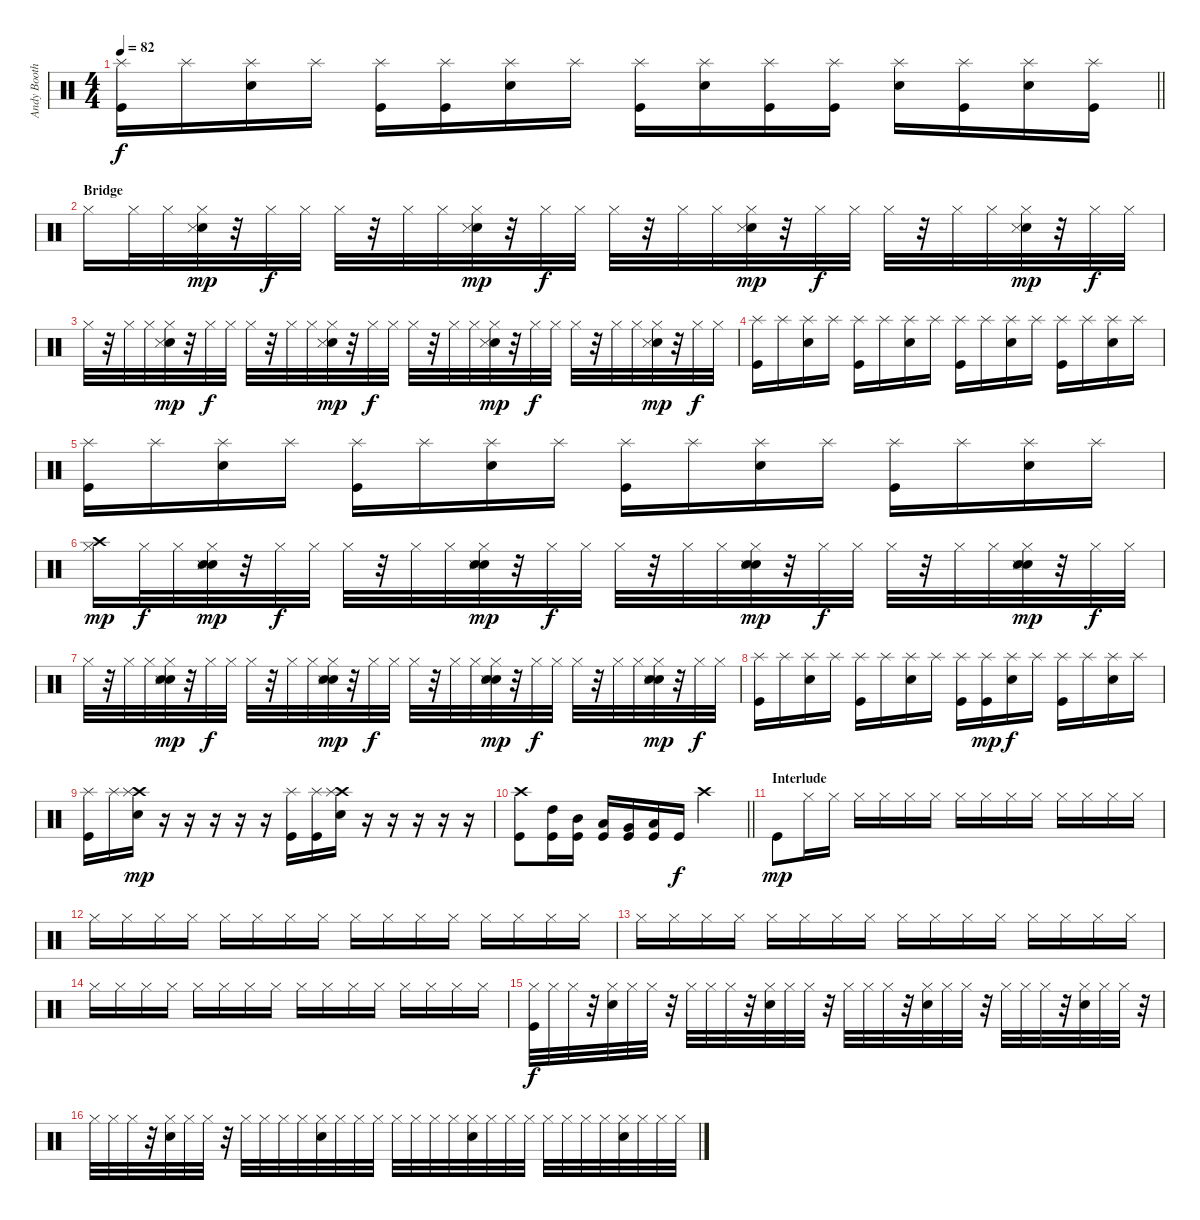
\track ("Andy Booth" "Andy Booth") {instrument percussion}
\staff {score}
\articulation defaults
\ts (4 4)
\tempo 82
\clef neutral
\barLineRight lightlight
\ks c
("Splash (hit)" "Kick (hit)").16{dy f} "Splash (hit)".16 ("Splash (hit)" "Electric Snare (hit)").16 "Splash (hit)".16 ("Splash (hit)" "Kick (hit)").16 ("Splash (hit)" "Kick (hit)").16 ("Splash (hit)" "Electric Snare (hit)").16 "Splash (hit)".16 ("Splash (hit)" "Kick (hit)").16 ("Splash (hit)" "Electric Snare (hit)").16 ("Splash (hit)" "Kick (hit)").16 ("Splash (hit)" "Kick (hit)").16 ("Splash (hit)" "Electric Snare (hit)").16 ("Splash (hit)" "Kick (hit)").16 ("Splash (hit)" "Electric Snare (hit)").16 ("Splash (hit)" "Kick (hit)").16 |
\section ("" "Bridge")
"Hi-Hat (closed)".16 "Hi-Hat (closed)".32 "Hi-Hat (closed)".32 ("Hi-Hat (closed)" "Snare (hit) 2" "Snare (side stick) 3").32{dy mp} r.32 "Hi-Hat (closed)".32{dy f} "Hi-Hat (closed)".32 "Hi-Hat (closed)".32 r.32 "Hi-Hat (closed)".32 "Hi-Hat (closed)".32 ("Hi-Hat (closed)" "Snare (hit) 2" "Snare (side stick) 3").32{dy mp} r.32 "Hi-Hat (closed)".32{dy f} "Hi-Hat (closed)".32 "Hi-Hat (closed)".32 r.32 "Hi-Hat (closed)".32 "Hi-Hat (closed)".32 ("Hi-Hat (closed)" "Snare (hit) 2" "Snare (side stick) 3").32{dy mp} r.32 "Hi-Hat (closed)".32{dy f} "Hi-Hat (closed)".32 "Hi-Hat (closed)".32 r.32 "Hi-Hat (closed)".32 "Hi-Hat (closed)".32 ("Hi-Hat (closed)" "Snare (hit) 2" "Snare (side stick) 3").32{dy mp} r.32 "Hi-Hat (closed)".32{dy f} "Hi-Hat (closed)".32 |
"Hi-Hat (closed)".32 r.32 "Hi-Hat (closed)".32 "Hi-Hat (closed)".32 ("Hi-Hat (closed)" "Snare (hit) 2" "Snare (side stick) 3").32{dy mp} r.32 "Hi-Hat (closed)".32{dy f} "Hi-Hat (closed)".32 "Hi-Hat (closed)".32 r.32 "Hi-Hat (closed)".32 "Hi-Hat (closed)".32 ("Hi-Hat (closed)" "Snare (hit) 2" "Snare (side stick) 3").32{dy mp} r.32 "Hi-Hat (closed)".32{dy f} "Hi-Hat (closed)".32 "Hi-Hat (closed)".32 r.32 "Hi-Hat (closed)".32 "Hi-Hat (closed)".32 ("Hi-Hat (closed)" "Snare (hit) 2" "Snare (side stick) 3").32{dy mp} r.32 "Hi-Hat (closed)".32{dy f} "Hi-Hat (closed)".32 "Hi-Hat (closed)".32 r.32 "Hi-Hat (closed)".32 "Hi-Hat (closed)".32 ("Hi-Hat (closed)" "Snare (hit) 2" "Snare (side stick) 3").32{dy mp} r.32 "Hi-Hat (closed)".32{dy f} "Hi-Hat (closed)".32 |
("Splash (hit)" "Kick (hit)").16 "Splash (hit)".16 ("Splash (hit)" "Electric Snare (hit)").16 "Splash (hit)".16 ("Splash (hit)" "Kick (hit)").16 "Splash (hit)".16 ("Splash (hit)" "Electric Snare (hit)").16 "Splash (hit)".16 ("Splash (hit)" "Kick (hit)").16 "Splash (hit)".16 ("Splash (hit)" "Electric Snare (hit)").16 "Splash (hit)".16 ("Splash (hit)" "Kick (hit)").16 "Splash (hit)".16 ("Splash (hit)" "Electric Snare (hit)").16 "Splash (hit)".16 |
("Splash (hit)" "Kick (hit)").16 "Splash (hit)".16 ("Splash (hit)" "Electric Snare (hit)").16 "Splash (hit)".16 ("Splash (hit)" "Kick (hit)").16 "Splash (hit)".16 ("Splash (hit)" "Electric Snare (hit)").16 "Splash (hit)".16 ("Splash (hit)" "Kick (hit)").16 "Splash (hit)".16 ("Splash (hit)" "Electric Snare (hit)").16 "Splash (hit)".16 ("Splash (hit)" "Kick (hit)").16 "Splash (hit)".16 ("Splash (hit)" "Electric Snare (hit)").16 "Splash (hit)".16 |
("Crash high (hit)" "Hi-Hat (closed)").16{dy mp} "Hi-Hat (closed)".32{dy f} "Hi-Hat (closed)".32 ("Hi-Hat (closed)" "Electric Snare (hit)" "Snare (hit) 2" "Snare (side stick) 3").32{dy mp} r.32 "Hi-Hat (closed)".32{dy f} "Hi-Hat (closed)".32 "Hi-Hat (closed)".32 r.32 "Hi-Hat (closed)".32 "Hi-Hat (closed)".32 ("Hi-Hat (closed)" "Electric Snare (hit)" "Snare (hit) 2" "Snare (side stick) 3").32{dy mp} r.32 "Hi-Hat (closed)".32{dy f} "Hi-Hat (closed)".32 "Hi-Hat (closed)".32 r.32 "Hi-Hat (closed)".32 "Hi-Hat (closed)".32 ("Hi-Hat (closed)" "Electric Snare (hit)" "Snare (hit) 2" "Snare (side stick) 3").32{dy mp} r.32 "Hi-Hat (closed)".32{dy f} "Hi-Hat (closed)".32 "Hi-Hat (closed)".32 r.32 "Hi-Hat (closed)".32 "Hi-Hat (closed)".32 ("Hi-Hat (closed)" "Electric Snare (hit)" "Snare (hit) 2" "Snare (side stick) 3").32{dy mp} r.32 "Hi-Hat (closed)".32{dy f} "Hi-Hat (closed)".32 |
"Hi-Hat (closed)".32 r.32 "Hi-Hat (closed)".32 "Hi-Hat (closed)".32 ("Hi-Hat (closed)" "Electric Snare (hit)" "Snare (hit) 2" "Snare (side stick) 3").32{dy mp} r.32 "Hi-Hat (closed)".32{dy f} "Hi-Hat (closed)".32 "Hi-Hat (closed)".32 r.32 "Hi-Hat (closed)".32 "Hi-Hat (closed)".32 ("Hi-Hat (closed)" "Electric Snare (hit)" "Snare (hit) 2" "Snare (side stick) 3").32{dy mp} r.32 "Hi-Hat (closed)".32{dy f} "Hi-Hat (closed)".32 "Hi-Hat (closed)".32 r.32 "Hi-Hat (closed)".32 "Hi-Hat (closed)".32 ("Hi-Hat (closed)" "Electric Snare (hit)" "Snare (hit) 2" "Snare (side stick) 3").32{dy mp} r.32 "Hi-Hat (closed)".32{dy f} "Hi-Hat (closed)".32 "Hi-Hat (closed)".32 r.32 "Hi-Hat (closed)".32 "Hi-Hat (closed)".32 ("Hi-Hat (closed)" "Electric Snare (hit)" "Snare (hit) 2" "Snare (side stick) 3").32{dy mp} r.32 "Hi-Hat (closed)".32{dy f} "Hi-Hat (closed)".32 |
("Splash (hit)" "Kick (hit)").16 "Splash (hit)".16 ("Splash (hit)" "Electric Snare (hit)").16 "Splash (hit)".16 ("Splash (hit)" "Kick (hit)").16 "Splash (hit)".16 ("Splash (hit)" "Electric Snare (hit)").16 "Splash (hit)".16 ("Splash (hit)" "Kick (hit)").16 ("Splash (hit)" "Kick (hit)").16{dy mp} ("Splash (hit)" "Electric Snare (hit)").16{dy f} "Splash (hit)".16 ("Splash (hit)" "Kick (hit)").16 "Splash (hit)".16 ("Splash (hit)" "Electric Snare (hit)").16 "Splash (hit)".16 |
("Splash (hit)" "Kick (hit)").16 "Splash (hit)".16 ("Crash high (hit)" "Splash (hit)" "Electric Snare (hit)").16{dy mp} r.16 r.16 r.16 r.16 r.16 ("Splash (hit)" "Kick (hit)").16 ("Splash (hit)" "Kick (hit)").16 ("Crash high (hit)" "Splash (hit)" "Electric Snare (hit)").16 r.16 r.16 r.16 r.16 r.16 |
\barLineRight lightlight
("Crash high (hit)" "Kick (hit)").8 ("High Tom (hit)" "Kick (hit)").16 ("Mid Tom (hit)" "Kick (hit)").16 ("Low Tom (hit)" "Kick (hit)").16 ("Very Low Tom (hit)" "Kick (hit)").16 ("Low Floor Tom (hit)" "Kick (hit)").16 "Kick (hit)".16{dy f} "Crash high (hit)".2 |
\section ("" "Interlude")
"Kick (hit)".8{dy mp} "Hi-Hat (closed)".16 "Hi-Hat (closed)".16 "Hi-Hat (closed)".16 "Hi-Hat (closed)".16 "Hi-Hat (closed)".16 "Hi-Hat (closed)".16 "Hi-Hat (closed)".16 "Hi-Hat (closed)".16 "Hi-Hat (closed)".16 "Hi-Hat (closed)".16 "Hi-Hat (closed)".16 "Hi-Hat (closed)".16 "Hi-Hat (closed)".16 "Hi-Hat (closed)".16 |
"Hi-Hat (closed)".16 "Hi-Hat (closed)".16 "Hi-Hat (closed)".16 "Hi-Hat (closed)".16 "Hi-Hat (closed)".16 "Hi-Hat (closed)".16 "Hi-Hat (closed)".16 "Hi-Hat (closed)".16 "Hi-Hat (closed)".16 "Hi-Hat (closed)".16 "Hi-Hat (closed)".16 "Hi-Hat (closed)".16 "Hi-Hat (closed)".16 "Hi-Hat (closed)".16 "Hi-Hat (closed)".16 "Hi-Hat (closed)".16 |
"Hi-Hat (closed)".16 "Hi-Hat (closed)".16 "Hi-Hat (closed)".16 "Hi-Hat (closed)".16 "Hi-Hat (closed)".16 "Hi-Hat (closed)".16 "Hi-Hat (closed)".16 "Hi-Hat (closed)".16 "Hi-Hat (closed)".16 "Hi-Hat (closed)".16 "Hi-Hat (closed)".16 "Hi-Hat (closed)".16 "Hi-Hat (closed)".16 "Hi-Hat (closed)".16 "Hi-Hat (closed)".16 "Hi-Hat (closed)".16 |
"Hi-Hat (closed)".16 "Hi-Hat (closed)".16 "Hi-Hat (closed)".16 "Hi-Hat (closed)".16 "Hi-Hat (closed)".16 "Hi-Hat (closed)".16 "Hi-Hat (closed)".16 "Hi-Hat (closed)".16 "Hi-Hat (closed)".16 "Hi-Hat (closed)".16 "Hi-Hat (closed)".16 "Hi-Hat (closed)".16 "Hi-Hat (closed)".16 "Hi-Hat (closed)".16 "Hi-Hat (closed)".16 "Hi-Hat (closed)".16 |
("Hi-Hat (closed)" "Kick (hit)").32{dy f volume 8} "Hi-Hat (closed)".32{volume 15} "Hi-Hat (closed)".32 r.32 ("Hi-Hat (closed)" "Hand Clap (hit)").32 "Hi-Hat (closed)".32 "Hi-Hat (closed)".32 r.32 "Hi-Hat (closed)".32 "Hi-Hat (closed)".32 "Hi-Hat (closed)".32 r.32 ("Hi-Hat (closed)" "Hand Clap (hit)").32 "Hi-Hat (closed)".32 "Hi-Hat (closed)".32 r.32 "Hi-Hat (closed)".32 "Hi-Hat (closed)".32 "Hi-Hat (closed)".32 r.32 ("Hi-Hat (closed)" "Hand Clap (hit)").32 "Hi-Hat (closed)".32 "Hi-Hat (closed)".32 r.32 "Hi-Hat (closed)".32 "Hi-Hat (closed)".32 "Hi-Hat (closed)".32 r.32 ("Hi-Hat (closed)" "Hand Clap (hit)").32 "Hi-Hat (closed)".32 "Hi-Hat (closed)".32 r.32 |
"Hi-Hat (closed)".32 "Hi-Hat (closed)".32 "Hi-Hat (closed)".32 r.32 ("Hi-Hat (closed)" "Hand Clap (hit)").32 "Hi-Hat (closed)".32 "Hi-Hat (closed)".32 r.32 "Hi-Hat (closed)".32 "Hi-Hat (closed)".32 "Hi-Hat (closed)".32 "Hi-Hat (closed)".32 ("Hi-Hat (closed)" "Hand Clap (hit)").32 "Hi-Hat (closed)".32 "Hi-Hat (closed)".32 "Hi-Hat (closed)".32 "Hi-Hat (closed)".32 "Hi-Hat (closed)".32 "Hi-Hat (closed)".32 "Hi-Hat (closed)".32 ("Hi-Hat (closed)" "Hand Clap (hit)").32 "Hi-Hat (closed)".32 "Hi-Hat (closed)".32 "Hi-Hat (closed)".32 "Hi-Hat (closed)".32 "Hi-Hat (closed)".32 "Hi-Hat (closed)".32 "Hi-Hat (closed)".32 ("Hi-Hat (closed)" "Hand Clap (hit)").32 "Hi-Hat (closed)".32 "Hi-Hat (closed)".32 "Hi-Hat (closed)".32
